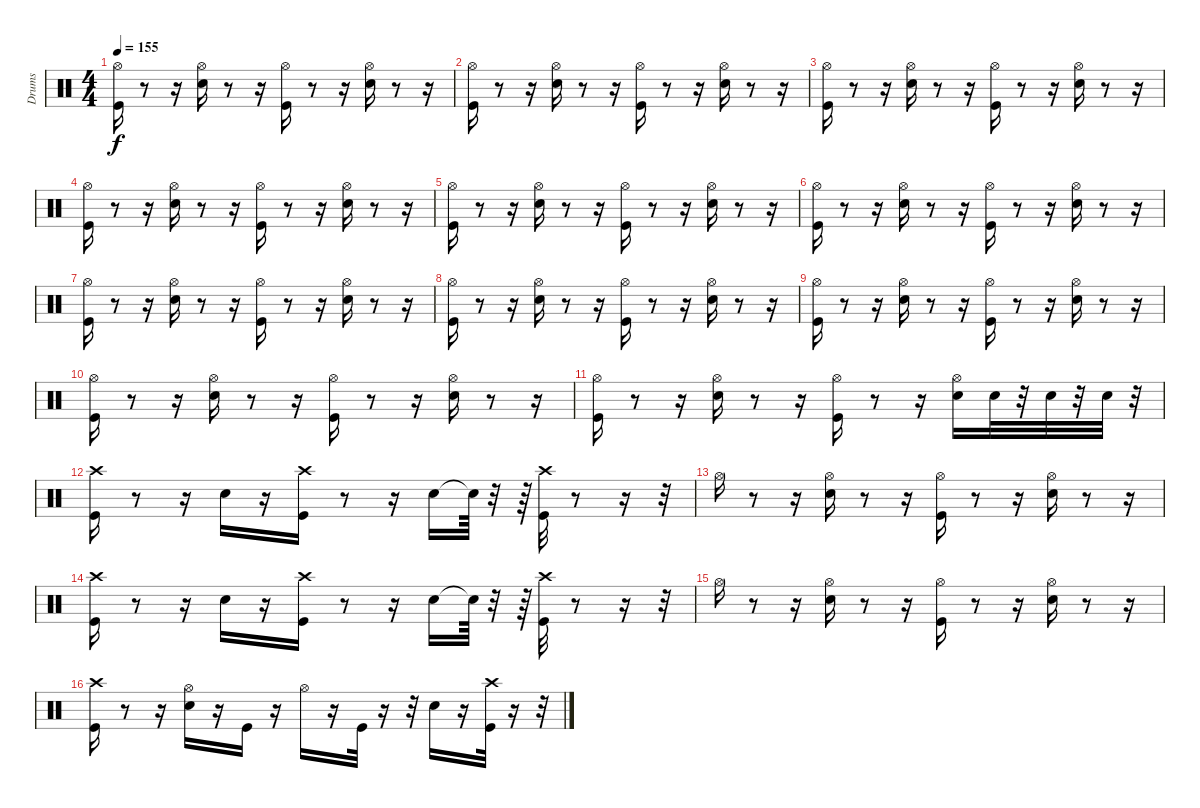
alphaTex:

\track ("Drums" "Drums") {instrument percussion}
\staff {score}
\articulation defaults
\ts (4 4)
\tempo 155
\clef neutral
\ks c
("Hi-Hat (open)" "Kick (hit)").16{dy f} r.8 r.16 ("Hi-Hat (open)" "Snare (hit) 2").16 r.8 r.16 ("Kick (hit)" "Hi-Hat (open)").16 r.8 r.16 ("Snare (hit) 2" "Hi-Hat (open)").16 r.8 r.16 |
("Hi-Hat (open)" "Kick (hit)").16 r.8 r.16 ("Hi-Hat (open)" "Snare (hit) 2").16 r.8 r.16 ("Kick (hit)" "Hi-Hat (open)").16 r.8 r.16 ("Snare (hit) 2" "Hi-Hat (open)").16 r.8 r.16 |
("Hi-Hat (open)" "Kick (hit)").16 r.8 r.16 ("Hi-Hat (open)" "Snare (hit) 2").16 r.8 r.16 ("Kick (hit)" "Hi-Hat (open)").16 r.8 r.16 ("Snare (hit) 2" "Hi-Hat (open)").16 r.8 r.16 |
("Hi-Hat (open)" "Kick (hit)").16 r.8 r.16 ("Hi-Hat (open)" "Snare (hit) 2").16 r.8 r.16 ("Kick (hit)" "Hi-Hat (open)").16 r.8 r.16 ("Snare (hit) 2" "Hi-Hat (open)").16 r.8 r.16 |
("Hi-Hat (open)" "Kick (hit)").16 r.8 r.16 ("Hi-Hat (open)" "Snare (hit) 2").16 r.8 r.16 ("Kick (hit)" "Hi-Hat (open)").16 r.8 r.16 ("Snare (hit) 2" "Hi-Hat (open)").16 r.8 r.16 |
("Hi-Hat (open)" "Kick (hit)").16 r.8 r.16 ("Hi-Hat (open)" "Snare (hit) 2").16 r.8 r.16 ("Kick (hit)" "Hi-Hat (open)").16 r.8 r.16 ("Snare (hit) 2" "Hi-Hat (open)").16 r.8 r.16 |
("Hi-Hat (open)" "Kick (hit)").16 r.8 r.16 ("Hi-Hat (open)" "Snare (hit) 2").16 r.8 r.16 ("Kick (hit)" "Hi-Hat (open)").16 r.8 r.16 ("Snare (hit) 2" "Hi-Hat (open)").16 r.8 r.16 |
("Hi-Hat (open)" "Kick (hit)").16 r.8 r.16 ("Hi-Hat (open)" "Snare (hit) 2").16 r.8 r.16 ("Kick (hit)" "Hi-Hat (open)").16 r.8 r.16 ("Snare (hit) 2" "Hi-Hat (open)").16 r.8 r.16 |
("Hi-Hat (open)" "Kick (hit)").16 r.8 r.16 ("Hi-Hat (open)" "Snare (hit) 2").16 r.8 r.16 ("Kick (hit)" "Hi-Hat (open)").16 r.8 r.16 ("Snare (hit) 2" "Hi-Hat (open)").16 r.8 r.16 |
("Hi-Hat (open)" "Kick (hit)").16 r.8 r.16 ("Hi-Hat (open)" "Snare (hit) 2").16 r.8 r.16 ("Kick (hit)" "Hi-Hat (open)").16 r.8 r.16 ("Snare (hit) 2" "Hi-Hat (open)").16 r.8 r.16 |
("Kick (hit)" "Hi-Hat (open)").16 r.8 r.16 ("Snare (hit) 2" "Hi-Hat (open)").16 r.8 r.16 ("Kick (hit)" "Hi-Hat (open)").16 r.8 r.16 ("Snare (hit) 2" "Hi-Hat (open)").16 "Snare (hit) 2".32 r.32 "Electric Snare (hit)".32 r.32 "Electric Snare (hit)".32 r.32 |
("Crash high (hit)" "Kick (hit)").16 r.8 r.16 "Snare (hit) 2".16 r.16 ("Kick (hit)" "Crash high (hit)").16 r.8 r.16 "Snare (hit) 2".16 "Snare (hit)"{t}.64 r.32 r.64 ("Kick (hit)" "Crash high (hit)").32 r.8 r.16 r.32 |
"Hi-Hat (open)".16 r.8 r.16 ("Hi-Hat (open)" "Snare (hit) 2").16 r.8 r.16 ("Hi-Hat (open)" "Kick (hit)").16 r.8 r.16 ("Hi-Hat (open)" "Snare (hit) 2").16 r.8 r.16 |
("Kick (hit)" "Crash high (hit)").16 r.8 r.16 "Snare (hit) 2".16 r.16 ("Kick (hit)" "Crash high (hit)").16 r.8 r.16 "Snare (hit) 2".16 "Snare (hit)"{t}.64 r.32 r.64 ("Kick (hit)" "Crash high (hit)").32 r.8 r.16 r.32 |
"Hi-Hat (open)".16 r.8 r.16 ("Hi-Hat (open)" "Snare (hit) 2").16 r.8 r.16 ("Hi-Hat (open)" "Kick (hit)").16 r.8 r.16 ("Hi-Hat (open)" "Snare (hit) 2").16 r.8 r.16 |
("Kick (hit)" "Crash high (hit)").16 r.8 r.16 ("Hi-Hat (open)" "Snare (hit) 2").16 r.16 "Kick (hit)".16 r.16 "Hi-Hat (open)".16 r.16 "Kick (hit)".32 r.16 r.32 "Snare (hit) 2".16 r.16 ("Kick (hit)" "Crash high (hit)").32 r.16 r.32
